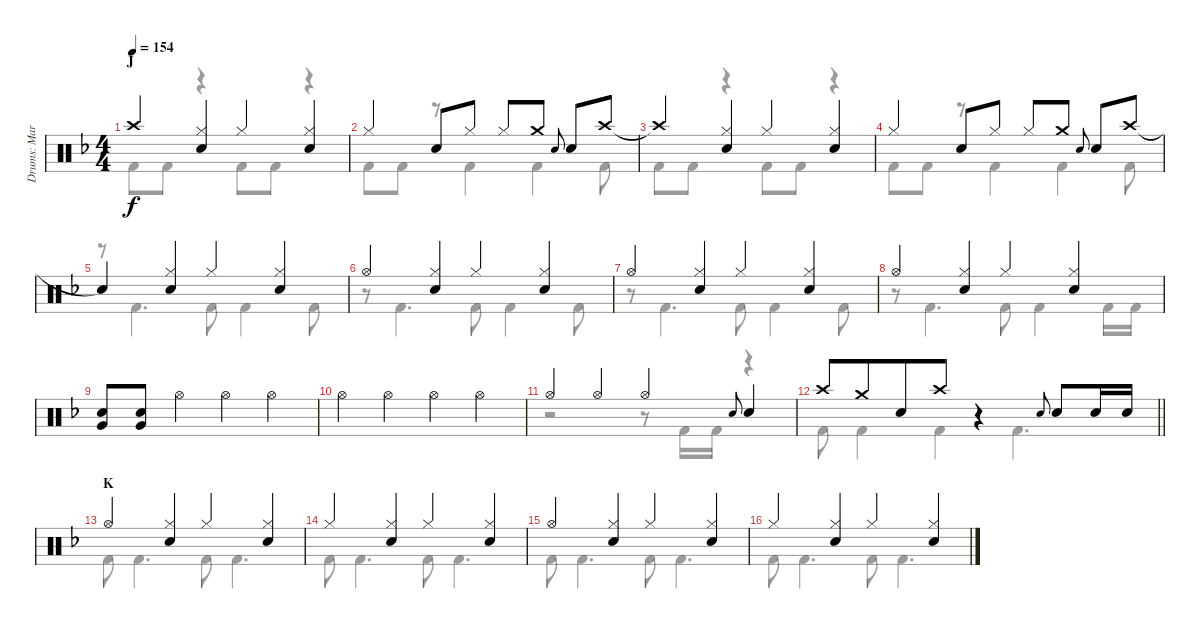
\track ("Drums: Mark" "Drums: Mar") {instrument percussion}
\staff {score}
\articulation defaults
\voice
\ts (4 4)
\section ("" "J")
\tempo 154
\clef neutral
\ks f "Crash high (hit)".4{dy f}
("Hi-Hat (closed)" "Snare (hit) 2").4 "Hi-Hat (closed)".4 ("Hi-Hat (closed)" "Snare (hit) 2").4 |
"Hi-Hat (closed)".4 "Snare (hit) 2".8{beam merge} "Hi-Hat (closed)".8 "Hi-Hat (closed)".8 "Crash medium (hit)".8 "Electric Snare (hit)".8{gr onbeat beam merge} "Snare (hit) 2".8 "Crash high (hit)".8 |
"Crash high (hit)"{t}.4 ("Hi-Hat (closed)" "Snare (hit) 2").4 "Hi-Hat (closed)".4 ("Hi-Hat (closed)" "Snare (hit) 2").4 |
"Hi-Hat (closed)".4 "Snare (hit) 2".8{beam merge} "Hi-Hat (closed)".8 "Hi-Hat (closed)".8 "Crash medium (hit)".8 "Electric Snare (hit)".8{gr onbeat beam merge} "Snare (hit) 2".8 "Crash high (hit)".8 |
"Snare (hit)"{t}.4 ("Hi-Hat (closed)" "Snare (hit) 2").4 "Hi-Hat (closed)".4 ("Hi-Hat (closed)" "Snare (hit) 2").4 |
"Hi-Hat (open)".4 ("Hi-Hat (closed)" "Snare (hit) 2").4 "Hi-Hat (closed)".4 ("Hi-Hat (closed)" "Snare (hit) 2").4 |
"Hi-Hat (open)".4 ("Hi-Hat (closed)" "Snare (hit) 2").4 "Hi-Hat (closed)".4 ("Hi-Hat (closed)" "Snare (hit) 2").4 |
"Hi-Hat (open)".4 ("Hi-Hat (closed)" "Snare (hit) 2").4 "Hi-Hat (closed)".4 ("Hi-Hat (closed)" "Snare (hit) 2").4 |
("Snare (hit) 2" "Very Low Tom (hit)").8 ("Snare (hit) 2" "Very Low Tom (hit)").8 "Hi-Hat (open)".4 "Hi-Hat (open)".4 "Hi-Hat (open)".4 |
"Hi-Hat (open)".4 "Hi-Hat (open)".4 "Hi-Hat (open)".4 "Hi-Hat (open)".4 |
"Hi-Hat (open)".4 "Hi-Hat (open)".4 "Hi-Hat (open)".4 "Electric Snare (hit)".8{gr onbeat} "Snare (hit) 2".4 |
\barLineRight lightlight "Crash high (hit)".8 "Crash medium (hit)".8{beam merge} "Snare (hit) 2".8 "Crash high (hit)".8
r.4 "Electric Snare (hit)".8{gr onbeat} "Snare (hit) 2".8 "Snare (hit) 2".16 "Snare (hit) 2".16 |
\section ("" "K")
"Hi-Hat (open)".4 ("Hi-Hat (closed)" "Snare (hit) 2").4 "Hi-Hat (closed)".4 ("Hi-Hat (closed)" "Snare (hit) 2").4 |
"Hi-Hat (closed)".4 ("Hi-Hat (closed)" "Snare (hit) 2").4 "Hi-Hat (closed)".4 ("Hi-Hat (closed)" "Snare (hit) 2").4 |
"Hi-Hat (open)".4 ("Hi-Hat (closed)" "Snare (hit) 2").4 "Hi-Hat (closed)".4 ("Hi-Hat (closed)" "Snare (hit) 2").4 |
"Hi-Hat (closed)".4 ("Hi-Hat (closed)" "Snare (hit) 2").4 "Hi-Hat (closed)".4 ("Hi-Hat (closed)" "Snare (hit) 2").4
\voice
\clef neutral
\ottava regular
\simile none
\ks f "Kick (hit) 2".8{dy f} "Kick (hit) 2".8
r.4 "Kick (hit) 2".8 "Kick (hit) 2".8 r.4 |
"Kick (hit) 2".8 "Kick (hit) 2".8 r.8 "Kick (hit) 2".4 "Kick (hit) 2".4 "Kick (hit) 2".8 |
"Kick (hit) 2".8 "Kick (hit) 2".8 r.4 "Kick (hit) 2".8 "Kick (hit) 2".8 r.4 |
"Kick (hit) 2".8 "Kick (hit) 2".8 r.8 "Kick (hit) 2".4 "Kick (hit) 2".4 "Kick (hit) 2".8 |
r.8 "Kick (hit) 2".4{d} "Kick (hit) 2".8 "Kick (hit) 2".4 "Kick (hit) 2".8 |
r.8 "Kick (hit) 2".4{d} "Kick (hit) 2".8 "Kick (hit) 2".4 "Kick (hit) 2".8 |
r.8 "Kick (hit) 2".4{d} "Kick (hit) 2".8 "Kick (hit) 2".4 "Kick (hit) 2".8 |
r.8 "Kick (hit) 2".4{d} "Kick (hit) 2".8 "Kick (hit) 2".4 "Kick (hit) 2".16 "Kick (hit) 2".16 |
|
|
r.2 r.8 "Kick (hit) 2".16 "Kick (hit) 2".16 r.4 |
\barLineRight lightlight "Kick (hit) 2".8 "Kick (hit) 2".4 "Kick (hit) 2".4 "Kick (hit) 2".4{d}
|
"Kick (hit) 2".8 "Kick (hit) 2".4{d} "Kick (hit) 2".8 "Kick (hit) 2".4{d} |
"Kick (hit) 2".8 "Kick (hit) 2".4{d} "Kick (hit) 2".8 "Kick (hit) 2".4{d} |
"Kick (hit) 2".8 "Kick (hit) 2".4{d} "Kick (hit) 2".8 "Kick (hit) 2".4{d} |
"Kick (hit) 2".8 "Kick (hit) 2".4{d} "Kick (hit) 2".8 "Kick (hit) 2".4{d}
